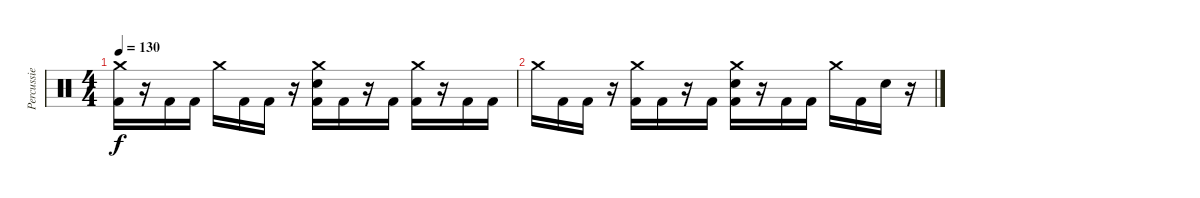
\track ("Percussie" "Percussie") {instrument percussion}
\staff {score}
\articulation defaults
\ts (4 4)
\tempo 130
\clef neutral
\ks c
("Crash medium (hit)" "Kick (hit) 2").16{dy f} r.16 "Kick (hit) 2".16 "Kick (hit) 2".16 "Crash medium (hit)".16 "Kick (hit) 2".16 "Kick (hit) 2".16 r.16 ("Crash medium (hit)" "Electric Snare (hit)" "Kick (hit) 2").16 "Kick (hit) 2".16 r.16 "Kick (hit) 2".16 ("Crash medium (hit)" "Kick (hit) 2").16 r.16 "Kick (hit) 2".16 "Kick (hit) 2".16 |
"Crash medium (hit)".16 "Kick (hit) 2".16 "Kick (hit) 2".16 r.16 ("Crash medium (hit)" "Kick (hit) 2").16 "Kick (hit) 2".16 r.16 "Kick (hit) 2".16 ("Crash medium (hit)" "Electric Snare (hit)" "Kick (hit) 2").16 r.16 "Kick (hit) 2".16 "Kick (hit) 2".16 "Crash medium (hit)".16 "Kick (hit) 2".16 "Electric Snare (hit)".16 r.16
